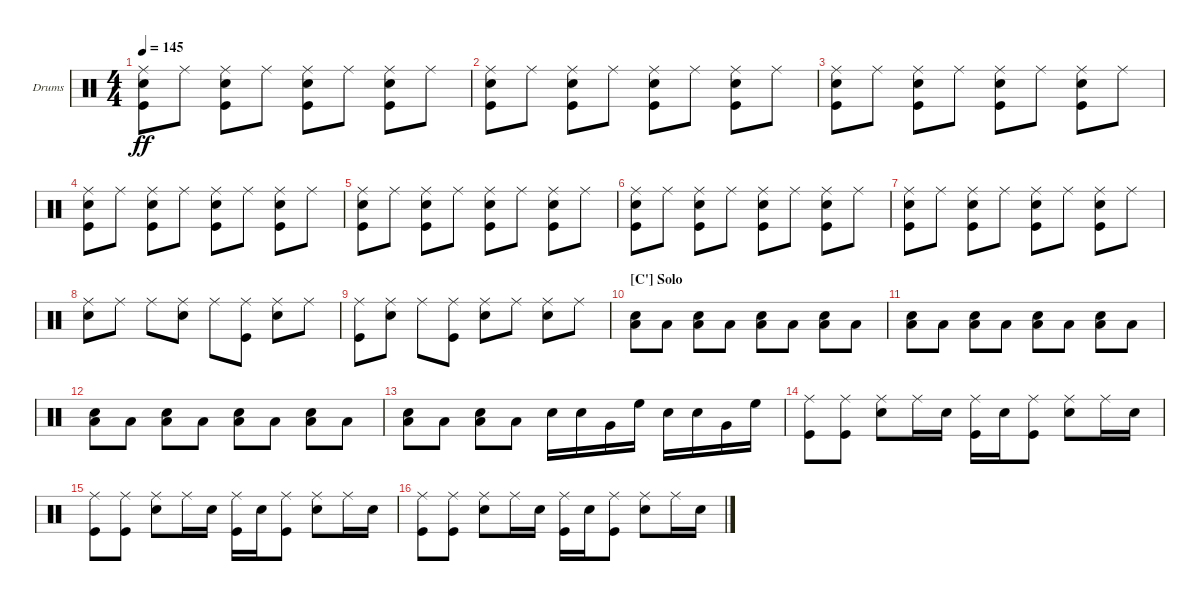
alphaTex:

\bracketExtendMode groupsimilarinstruments
\firstSystemTrackNameOrientation horizontal
\otherSystemsTrackNameOrientation horizontal
\track ("Fabrizio Moretti" "Drums") {instrument percussion}
\staff {score}
\articulation defaults
\ts (4 4)
\tempo 145
\clef neutral
\ks c
("Ride (middle)" "Snare (hit) 2" "Kick (hit)").8{dy ff} "Ride (middle)".8 ("Ride (middle)" "Snare (hit) 2" "Kick (hit)").8 "Ride (middle)".8 ("Ride (middle)" "Snare (hit) 2" "Kick (hit)").8 "Ride (middle)".8 ("Ride (middle)" "Snare (hit) 2" "Kick (hit)").8 "Ride (middle)".8 |
("Ride (middle)" "Snare (hit) 2" "Kick (hit)").8 "Ride (middle)".8 ("Ride (middle)" "Snare (hit) 2" "Kick (hit)").8 "Ride (middle)".8 ("Ride (middle)" "Snare (hit) 2" "Kick (hit)").8 "Ride (middle)".8 ("Ride (middle)" "Snare (hit) 2" "Kick (hit)").8 "Ride (middle)".8 |
("Ride (middle)" "Snare (hit) 2" "Kick (hit)").8 "Ride (middle)".8 ("Ride (middle)" "Snare (hit) 2" "Kick (hit)").8 "Ride (middle)".8 ("Ride (middle)" "Snare (hit) 2" "Kick (hit)").8 "Ride (middle)".8 ("Ride (middle)" "Snare (hit) 2" "Kick (hit)").8 "Ride (middle)".8 |
("Ride (middle)" "Snare (hit) 2" "Kick (hit)").8 "Ride (middle)".8 ("Ride (middle)" "Snare (hit) 2" "Kick (hit)").8 "Ride (middle)".8 ("Ride (middle)" "Snare (hit) 2" "Kick (hit)").8 "Ride (middle)".8 ("Ride (middle)" "Snare (hit) 2" "Kick (hit)").8 "Ride (middle)".8 |
("Ride (middle)" "Snare (hit) 2" "Kick (hit)").8 "Ride (middle)".8 ("Ride (middle)" "Snare (hit) 2" "Kick (hit)").8 "Ride (middle)".8 ("Ride (middle)" "Snare (hit) 2" "Kick (hit)").8 "Ride (middle)".8 ("Ride (middle)" "Snare (hit) 2" "Kick (hit)").8 "Ride (middle)".8 |
("Ride (middle)" "Snare (hit) 2" "Kick (hit)").8 "Ride (middle)".8 ("Ride (middle)" "Snare (hit) 2" "Kick (hit)").8 "Ride (middle)".8 ("Ride (middle)" "Snare (hit) 2" "Kick (hit)").8 "Ride (middle)".8 ("Ride (middle)" "Snare (hit) 2" "Kick (hit)").8 "Ride (middle)".8 |
("Ride (middle)" "Snare (hit) 2" "Kick (hit)").8 "Ride (middle)".8 ("Ride (middle)" "Snare (hit) 2" "Kick (hit)").8 "Ride (middle)".8 ("Ride (middle)" "Snare (hit) 2" "Kick (hit)").8 "Ride (middle)".8 ("Ride (middle)" "Snare (hit) 2" "Kick (hit)").8 "Ride (middle)".8 |
("Ride (middle)" "Snare (hit) 2").8 "Ride (middle)".8 "Ride (middle)".8 ("Ride (middle)" "Snare (hit) 2").8 "Ride (middle)".8 ("Ride (middle)" "Kick (hit)").8 ("Ride (middle)" "Snare (hit) 2").8 "Ride (middle)".8 |
("Ride (middle)" "Kick (hit)").8 ("Ride (middle)" "Snare (hit) 2").8 "Ride (middle)".8 ("Ride (middle)" "Kick (hit)").8 ("Ride (middle)" "Snare (hit) 2").8 "Ride (middle)".8 ("Ride (middle)" "Snare (hit) 2").8 "Ride (middle)".8 |
\section ("C'" "Solo")
("Snare (hit) 2" "Low Tom (hit)").8 "Low Tom (hit)".8 ("Snare (hit) 2" "Low Tom (hit)").8 "Low Tom (hit)".8 ("Snare (hit) 2" "Low Tom (hit)").8 "Low Tom (hit)".8 ("Snare (hit) 2" "Low Tom (hit)").8 "Low Tom (hit)".8 |
("Snare (hit) 2" "Low Tom (hit)").8 "Low Tom (hit)".8 ("Snare (hit) 2" "Low Tom (hit)").8 "Low Tom (hit)".8 ("Snare (hit) 2" "Low Tom (hit)").8 "Low Tom (hit)".8 ("Snare (hit) 2" "Low Tom (hit)").8 "Low Tom (hit)".8 |
("Snare (hit) 2" "Low Tom (hit)").8 "Low Tom (hit)".8 ("Snare (hit) 2" "Low Tom (hit)").8 "Low Tom (hit)".8 ("Snare (hit) 2" "Low Tom (hit)").8 "Low Tom (hit)".8 ("Snare (hit) 2" "Low Tom (hit)").8 "Low Tom (hit)".8 |
("Snare (hit) 2" "Low Tom (hit)").8 "Low Tom (hit)".8 ("Snare (hit) 2" "Low Tom (hit)").8 "Low Tom (hit)".8 "Snare (hit) 2".16 "Snare (hit) 2".16 "Very Low Tom (hit)".16 "High Floor Tom (hit)".16 "Snare (hit) 2".16 "Snare (hit) 2".16 "Very Low Tom (hit)".16 "High Floor Tom (hit)".16 |
("Ride (middle)" "Kick (hit)").8 ("Ride (middle)" "Kick (hit)").8 ("Ride (middle)" "Snare (hit) 2").8 "Ride (middle)".16 "Snare (hit) 2".16 ("Ride (middle)" "Kick (hit)").16 "Snare (hit) 2".16 ("Ride (middle)" "Kick (hit)").8 ("Ride (middle)" "Snare (hit) 2").8 "Ride (middle)".16 "Snare (hit) 2".16 |
("Ride (middle)" "Kick (hit)").8 ("Ride (middle)" "Kick (hit)").8 ("Ride (middle)" "Snare (hit) 2").8 "Ride (middle)".16 "Snare (hit) 2".16 ("Ride (middle)" "Kick (hit)").16 "Snare (hit) 2".16 ("Ride (middle)" "Kick (hit)").8 ("Ride (middle)" "Snare (hit) 2").8 "Ride (middle)".16 "Snare (hit) 2".16 |
("Ride (middle)" "Kick (hit)").8 ("Ride (middle)" "Kick (hit)").8 ("Ride (middle)" "Snare (hit) 2").8 "Ride (middle)".16 "Snare (hit) 2".16 ("Ride (middle)" "Kick (hit)").16 "Snare (hit) 2".16 ("Ride (middle)" "Kick (hit)").8 ("Ride (middle)" "Snare (hit) 2").8 "Ride (middle)".16 "Snare (hit) 2".16
